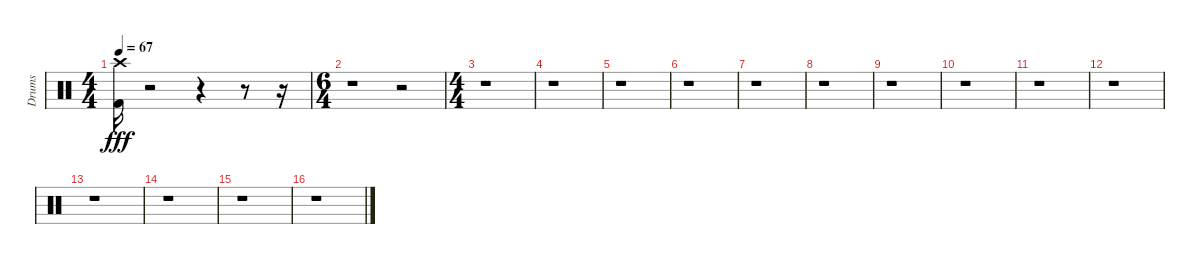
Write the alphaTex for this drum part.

\track ("Drums" "Drums") {instrument percussion}
\staff {score}
\articulation defaults
\ts (4 4)
\tempo 67
\clef neutral
\ks c
("Crash high (hit)" "Kick (hit) 2").16{dy fff} r.2 r.4 r.8 r.16 |
\ts (6 4)
r.1 r.2 |
\ts (4 4)
r.1 |
r.1 |
r.1 |
r.1 |
r.1 |
r.1 |
r.1 |
r.1 |
r.1 |
r.1 |
r.1 |
r.1 |
r.1 |
r.1
